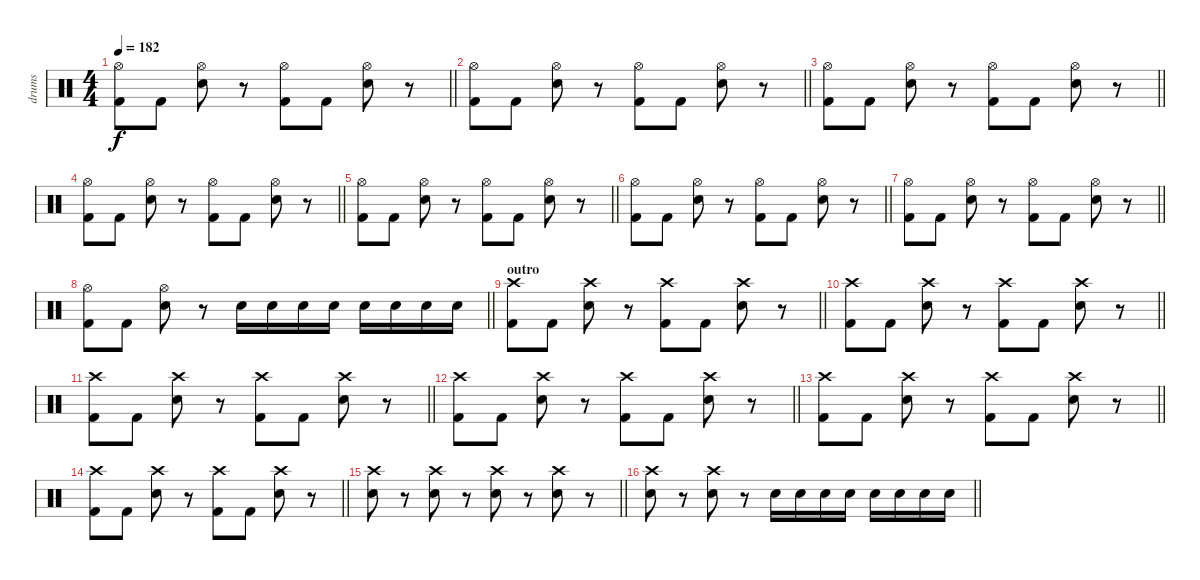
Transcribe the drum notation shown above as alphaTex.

\track ("drums" "drums") {instrument percussion}
\staff {score}
\articulation defaults
\ts (4 4)
\tempo 182
\clef neutral
\barLineRight lightlight
\ks c
("Kick (hit) 2" "Hi-Hat (open)").8{dy f} "Kick (hit) 2".8 ("Electric Snare (hit)" "Hi-Hat (open)").8 r.8 ("Kick (hit) 2" "Hi-Hat (open)").8 "Kick (hit) 2".8 ("Electric Snare (hit)" "Hi-Hat (open)").8 r.8 |
\barLineRight lightlight
("Kick (hit) 2" "Hi-Hat (open)").8 "Kick (hit) 2".8 ("Electric Snare (hit)" "Hi-Hat (open)").8 r.8 ("Kick (hit) 2" "Hi-Hat (open)").8 "Kick (hit) 2".8 ("Electric Snare (hit)" "Hi-Hat (open)").8 r.8 |
\barLineRight lightlight
("Kick (hit) 2" "Hi-Hat (open)").8 "Kick (hit) 2".8 ("Electric Snare (hit)" "Hi-Hat (open)").8 r.8 ("Kick (hit) 2" "Hi-Hat (open)").8 "Kick (hit) 2".8 ("Electric Snare (hit)" "Hi-Hat (open)").8 r.8 |
\barLineRight lightlight
("Kick (hit) 2" "Hi-Hat (open)").8 "Kick (hit) 2".8 ("Electric Snare (hit)" "Hi-Hat (open)").8 r.8 ("Kick (hit) 2" "Hi-Hat (open)").8 "Kick (hit) 2".8 ("Electric Snare (hit)" "Hi-Hat (open)").8 r.8 |
\barLineRight lightlight
("Kick (hit) 2" "Hi-Hat (open)").8 "Kick (hit) 2".8 ("Electric Snare (hit)" "Hi-Hat (open)").8 r.8 ("Kick (hit) 2" "Hi-Hat (open)").8 "Kick (hit) 2".8 ("Electric Snare (hit)" "Hi-Hat (open)").8 r.8 |
\barLineRight lightlight
("Kick (hit) 2" "Hi-Hat (open)").8 "Kick (hit) 2".8 ("Electric Snare (hit)" "Hi-Hat (open)").8 r.8 ("Kick (hit) 2" "Hi-Hat (open)").8 "Kick (hit) 2".8 ("Electric Snare (hit)" "Hi-Hat (open)").8 r.8 |
\barLineRight lightlight
("Kick (hit) 2" "Hi-Hat (open)").8 "Kick (hit) 2".8 ("Electric Snare (hit)" "Hi-Hat (open)").8 r.8 ("Kick (hit) 2" "Hi-Hat (open)").8 "Kick (hit) 2".8 ("Electric Snare (hit)" "Hi-Hat (open)").8 r.8 |
\barLineRight lightlight
("Kick (hit) 2" "Hi-Hat (open)").8 "Kick (hit) 2".8 ("Electric Snare (hit)" "Hi-Hat (open)").8 r.8 "Electric Snare (hit)".16 "Electric Snare (hit)".16 "Electric Snare (hit)".16 "Electric Snare (hit)".16 "Electric Snare (hit)".16 "Electric Snare (hit)".16 "Electric Snare (hit)".16 "Electric Snare (hit)".16 |
\section ("" "outro")
\barLineRight lightlight
("Kick (hit) 2" "Crash high (hit)").8 "Kick (hit) 2".8 ("Electric Snare (hit)" "Crash high (hit)").8 r.8 ("Kick (hit) 2" "Crash high (hit)").8 "Kick (hit) 2".8 ("Electric Snare (hit)" "Crash high (hit)").8 r.8 |
\barLineRight lightlight
("Kick (hit) 2" "Crash high (hit)").8 "Kick (hit) 2".8 ("Electric Snare (hit)" "Crash high (hit)").8 r.8 ("Kick (hit) 2" "Crash high (hit)").8 "Kick (hit) 2".8 ("Electric Snare (hit)" "Crash high (hit)").8 r.8 |
\barLineRight lightlight
("Kick (hit) 2" "Crash high (hit)").8 "Kick (hit) 2".8 ("Electric Snare (hit)" "Crash high (hit)").8 r.8 ("Kick (hit) 2" "Crash high (hit)").8 "Kick (hit) 2".8 ("Electric Snare (hit)" "Crash high (hit)").8 r.8 |
\barLineRight lightlight
("Kick (hit) 2" "Crash high (hit)").8 "Kick (hit) 2".8 ("Electric Snare (hit)" "Crash high (hit)").8 r.8 ("Kick (hit) 2" "Crash high (hit)").8 "Kick (hit) 2".8 ("Electric Snare (hit)" "Crash high (hit)").8 r.8 |
\barLineRight lightlight
("Kick (hit) 2" "Crash high (hit)").8 "Kick (hit) 2".8 ("Electric Snare (hit)" "Crash high (hit)").8 r.8 ("Kick (hit) 2" "Crash high (hit)").8 "Kick (hit) 2".8 ("Electric Snare (hit)" "Crash high (hit)").8 r.8 |
\barLineRight lightlight
("Kick (hit) 2" "Crash high (hit)").8 "Kick (hit) 2".8 ("Electric Snare (hit)" "Crash high (hit)").8 r.8 ("Kick (hit) 2" "Crash high (hit)").8 "Kick (hit) 2".8 ("Electric Snare (hit)" "Crash high (hit)").8 r.8 |
\barLineRight lightlight
("Electric Snare (hit)" "Crash high (hit)").8 r.8 ("Electric Snare (hit)" "Crash high (hit)").8 r.8 ("Electric Snare (hit)" "Crash high (hit)").8 r.8 ("Electric Snare (hit)" "Crash high (hit)").8 r.8 |
\barLineRight lightlight
("Electric Snare (hit)" "Crash high (hit)").8 r.8 ("Electric Snare (hit)" "Crash high (hit)").8 r.8 "Electric Snare (hit)".16 "Electric Snare (hit)".16 "Electric Snare (hit)".16 "Electric Snare (hit)".16 "Electric Snare (hit)".16 "Electric Snare (hit)".16 "Electric Snare (hit)".16 "Electric Snare (hit)".16
